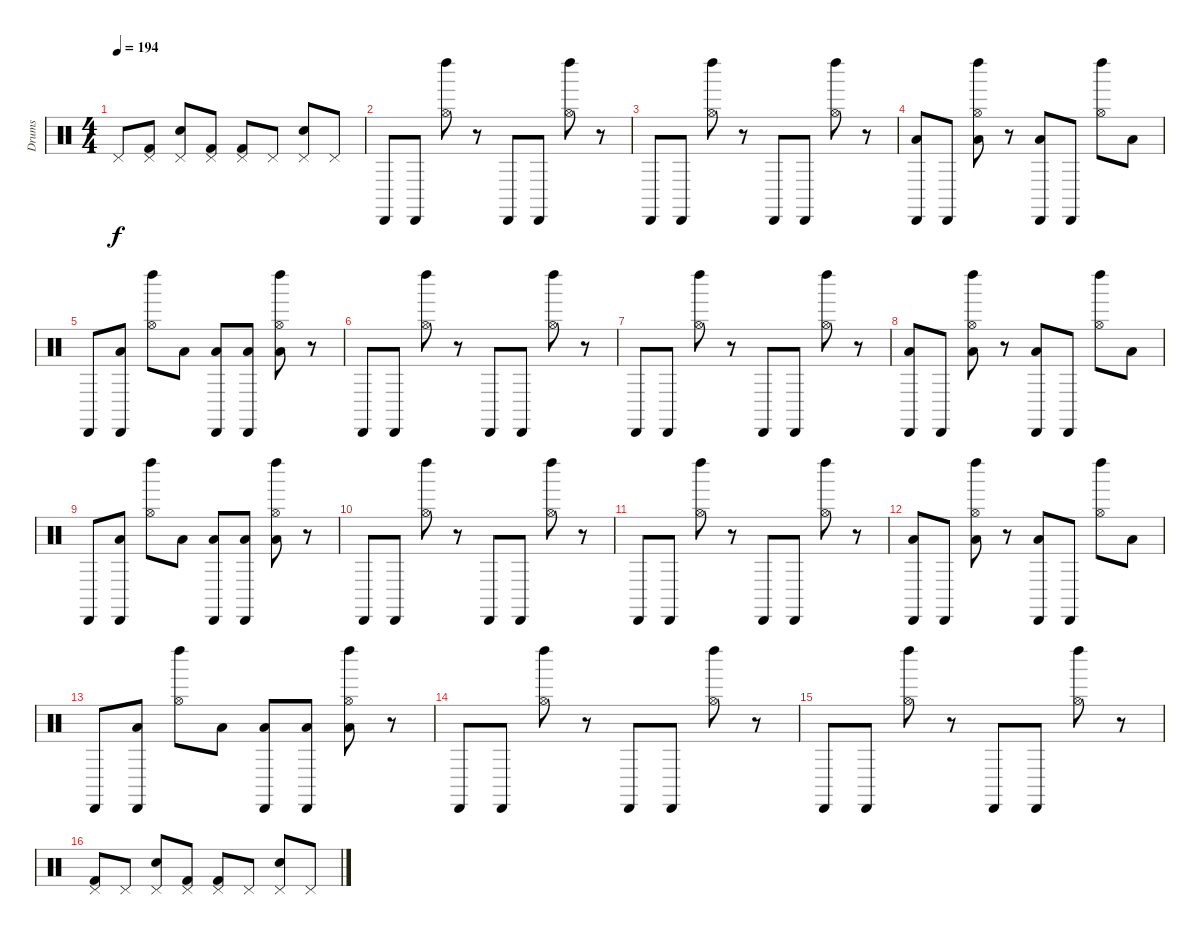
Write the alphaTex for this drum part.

\track ("Drums" "Drums") {instrument percussion}
\staff {score}
\articulation defaults
\ts (4 4)
\tempo 194
\clef neutral
\ks c "Pedal Hi-Hat (hit)".8{dy f}
("Kick (hit) 2" "Pedal Hi-Hat (hit)").8 ("Pedal Hi-Hat (hit)" "Electric Snare (hit)").8 ("Kick (hit) 2" "Pedal Hi-Hat (hit)").8 ("Kick (hit) 2" "Pedal Hi-Hat (hit)").8 "Pedal Hi-Hat (hit)".8 ("Pedal Hi-Hat (hit)" "Electric Snare (hit)").8 "Pedal Hi-Hat (hit)".8 |
"Cabasa (hit)".8 "Cabasa (hit)".8 ("Hi-Hat (open)" "Left Maraca (hit)").8 r.8 "Cabasa (hit)".8 "Cabasa (hit)".8 ("Hi-Hat (open)" "Left Maraca (hit)").8 r.8 |
"Cabasa (hit)".8 "Cabasa (hit)".8 ("Left Maraca (hit)" "Hi-Hat (open)").8 r.8 "Cabasa (hit)".8 "Cabasa (hit)".8 ("Hi-Hat (open)" "Left Maraca (hit)").8 r.8 |
("Cabasa (hit)" "Low Tom (hit)").8 "Cabasa (hit)".8 ("Left Maraca (hit)" "Low Tom (hit)" "Hi-Hat (open)").8 r.8 ("Cabasa (hit)" "Low Tom (hit)").8 "Cabasa (hit)".8 ("Left Maraca (hit)" "Hi-Hat (open)").8 "Low Tom (hit)".8 |
"Cabasa (hit)".8 ("Cabasa (hit)" "Low Tom (hit)").8 ("Hi-Hat (open)" "Left Maraca (hit)").8 "Low Tom (hit)".8 ("Low Tom (hit)" "Cabasa (hit)").8 ("Cabasa (hit)" "Low Tom (hit)").8 ("Hi-Hat (open)" "Low Tom (hit)" "Left Maraca (hit)").8 r.8 |
"Cabasa (hit)".8 "Cabasa (hit)".8 ("Hi-Hat (open)" "Left Maraca (hit)").8 r.8 "Cabasa (hit)".8 "Cabasa (hit)".8 ("Hi-Hat (open)" "Left Maraca (hit)").8 r.8 |
"Cabasa (hit)".8 "Cabasa (hit)".8 ("Left Maraca (hit)" "Hi-Hat (open)").8 r.8 "Cabasa (hit)".8 "Cabasa (hit)".8 ("Hi-Hat (open)" "Left Maraca (hit)").8 r.8 |
("Cabasa (hit)" "Low Tom (hit)").8 "Cabasa (hit)".8 ("Low Tom (hit)" "Left Maraca (hit)" "Hi-Hat (open)").8 r.8 ("Cabasa (hit)" "Low Tom (hit)").8 "Cabasa (hit)".8 ("Hi-Hat (open)" "Left Maraca (hit)").8 "Low Tom (hit)".8 |
"Cabasa (hit)".8 ("Low Tom (hit)" "Cabasa (hit)").8 ("Left Maraca (hit)" "Hi-Hat (open)").8 "Low Tom (hit)".8 ("Low Tom (hit)" "Cabasa (hit)").8 ("Low Tom (hit)" "Cabasa (hit)").8 ("Hi-Hat (open)" "Low Tom (hit)" "Left Maraca (hit)").8 r.8 |
"Cabasa (hit)".8 "Cabasa (hit)".8 ("Hi-Hat (open)" "Left Maraca (hit)").8 r.8 "Cabasa (hit)".8 "Cabasa (hit)".8 ("Hi-Hat (open)" "Left Maraca (hit)").8 r.8 |
"Cabasa (hit)".8 "Cabasa (hit)".8 ("Hi-Hat (open)" "Left Maraca (hit)").8 r.8 "Cabasa (hit)".8 "Cabasa (hit)".8 ("Hi-Hat (open)" "Left Maraca (hit)").8 r.8 |
("Cabasa (hit)" "Low Tom (hit)").8 "Cabasa (hit)".8 ("Left Maraca (hit)" "Low Tom (hit)" "Hi-Hat (open)").8 r.8 ("Cabasa (hit)" "Low Tom (hit)").8 "Cabasa (hit)".8 ("Hi-Hat (open)" "Left Maraca (hit)").8 "Low Tom (hit)".8 |
"Cabasa (hit)".8 ("Low Tom (hit)" "Cabasa (hit)").8 ("Left Maraca (hit)" "Hi-Hat (open)").8 "Low Tom (hit)".8 ("Cabasa (hit)" "Low Tom (hit)").8 ("Cabasa (hit)" "Low Tom (hit)").8 ("Hi-Hat (open)" "Left Maraca (hit)" "Low Tom (hit)").8 r.8 |
"Cabasa (hit)".8 "Cabasa (hit)".8 ("Hi-Hat (open)" "Left Maraca (hit)").8 r.8 "Cabasa (hit)".8 "Cabasa (hit)".8 ("Hi-Hat (open)" "Left Maraca (hit)").8 r.8 |
"Cabasa (hit)".8 "Cabasa (hit)".8 ("Left Maraca (hit)" "Hi-Hat (open)").8 r.8 "Cabasa (hit)".8 "Cabasa (hit)".8 ("Hi-Hat (open)" "Left Maraca (hit)").8 r.8 |
("Pedal Hi-Hat (hit)" "Kick (hit) 2").8 "Pedal Hi-Hat (hit)".8 ("Pedal Hi-Hat (hit)" "Electric Snare (hit)").8 ("Kick (hit) 2" "Pedal Hi-Hat (hit)").8 ("Pedal Hi-Hat (hit)" "Kick (hit) 2").8 "Pedal Hi-Hat (hit)".8 ("Pedal Hi-Hat (hit)" "Electric Snare (hit)").8 "Pedal Hi-Hat (hit)".8
